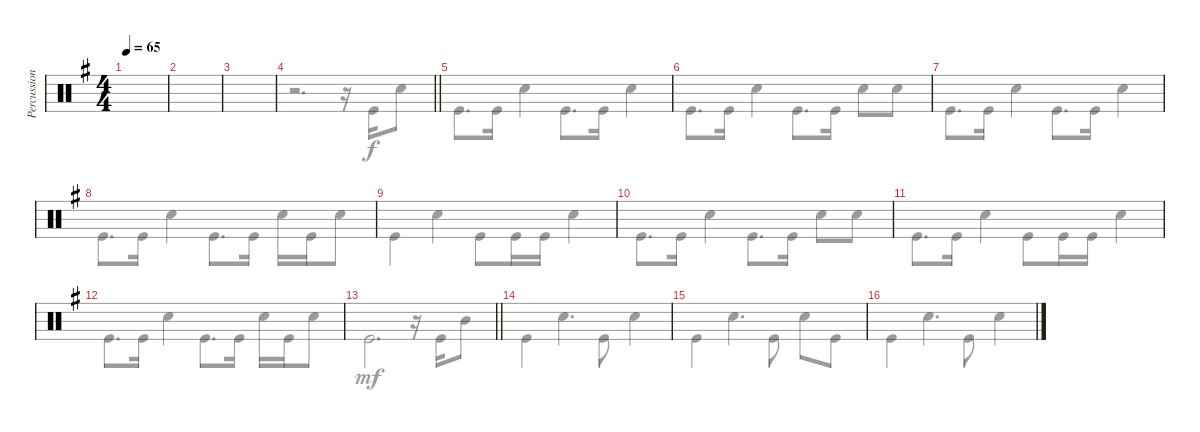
\track ("Percussion" "Percussion") {instrument percussion}
\staff {score}
\articulation defaults
\voice
\ts (4 4)
\tempo 65
\clef neutral
\ks eminor
|
|
|
\barLineRight lightlight
|
|
|
|
|
|
|
|
|
\barLineRight lightlight
|
|
|
\voice
\clef neutral
\ks eminor
|
|
|
\barLineRight lightlight
r.2{d} r.16 "Kick (hit)".16 "Snare (hit) 2".8 |
"Kick (hit)".8{d dy f} "Kick (hit)".16 "Snare (hit) 2".4 "Kick (hit)".8{d} "Kick (hit)".16 "Snare (hit) 2".4 |
"Kick (hit)".8{d} "Kick (hit)".16 "Snare (hit) 2".4 "Kick (hit)".8{d} "Kick (hit)".16 "Snare (hit) 2".8 "Snare (hit) 2".8 |
"Kick (hit)".8{d} "Kick (hit)".16 "Snare (hit) 2".4 "Kick (hit)".8{d} "Kick (hit)".16 "Snare (hit) 2".4 |
"Kick (hit)".8{d} "Kick (hit)".16 "Snare (hit) 2".4 "Kick (hit)".8{d} "Kick (hit)".16 "Snare (hit) 2".16 "Kick (hit)".16 "Snare (hit) 2".8 |
"Kick (hit)".4 "Snare (hit) 2".4 "Kick (hit)".8 "Kick (hit)".16 "Kick (hit)".16 "Snare (hit) 2".4 |
"Kick (hit)".8{d} "Kick (hit)".16 "Snare (hit) 2".4 "Kick (hit)".8{d} "Kick (hit)".16 "Snare (hit) 2".8 "Snare (hit) 2".8 |
"Kick (hit)".8{d} "Kick (hit)".16 "Snare (hit) 2".4 "Kick (hit)".8 "Kick (hit)".16 "Kick (hit)".16 "Snare (hit) 2".4 |
"Kick (hit)".8{d} "Kick (hit)".16 "Snare (hit) 2".4 "Kick (hit)".8{d} "Kick (hit)".16 "Snare (hit) 2".16 "Kick (hit)".16 "Snare (hit) 2".8 |
\barLineRight lightlight "Kick (hit)".2{d dy mf}
r.16 "Kick (hit)".16 "Mid Tom (hit)".8 |
"Kick (hit)".4 "Snare (hit) 2".4{d} "Kick (hit)".8 "Snare (hit) 2".4 |
"Kick (hit)".4 "Snare (hit) 2".4{d} "Kick (hit)".8 "Snare (hit) 2".8 "Kick (hit)".8 |
"Kick (hit)".4 "Snare (hit) 2".4{d} "Kick (hit)".8 "Snare (hit) 2".4
